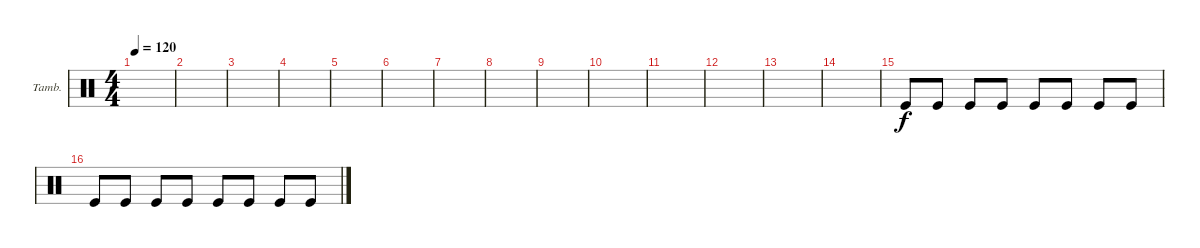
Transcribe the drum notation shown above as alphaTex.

\bracketExtendMode groupsimilarinstruments
\firstSystemTrackNameOrientation horizontal
\otherSystemsTrackNameOrientation horizontal
\track ("Tambourine" "Tamb.") {instrument percussion}
\staff {score}
\articulation defaults
\ts (4 4)
\tempo 120
\clef neutral
\ks c
|
|
|
|
|
|
|
|
|
|
|
|
|
|
"Kick (hit)".8 "Kick (hit)".8 "Kick (hit)".8 "Kick (hit)".8 "Kick (hit)".8 "Kick (hit)".8 "Kick (hit)".8 "Kick (hit)".8 |
"Kick (hit)".8 "Kick (hit)".8 "Kick (hit)".8 "Kick (hit)".8 "Kick (hit)".8 "Kick (hit)".8 "Kick (hit)".8 "Kick (hit)".8
